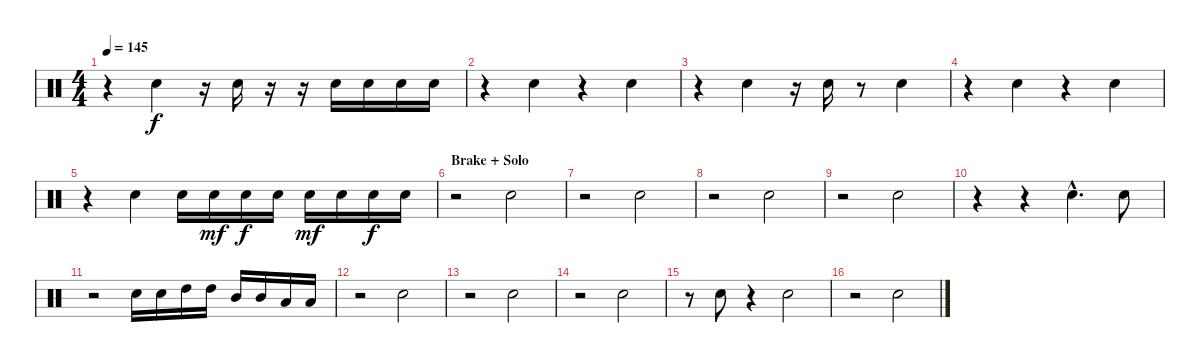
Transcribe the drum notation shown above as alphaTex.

\track "" {instrument percussion}
\staff {score}
\articulation defaults
\ts (4 4)
\tempo 145
\clef neutral
\ks c
r.4{dy f} "Electric Snare (hit)".4 r.16 "Electric Snare (hit)".16 r.16 r.16 "Electric Snare (hit)".16 "Electric Snare (hit)".16 "Electric Snare (hit)".16 "Electric Snare (hit)".16 |
r.4 "Electric Snare (hit)".4 r.4 "Electric Snare (hit)".4 |
r.4 "Electric Snare (hit)".4 r.16 "Electric Snare (hit)".16 r.8 "Electric Snare (hit)".4 |
r.4 "Electric Snare (hit)".4 r.4 "Electric Snare (hit)".4 |
r.4 "Electric Snare (hit)".4 "Electric Snare (hit)".16 "Electric Snare (hit)".16{dy mf} "Electric Snare (hit)".16{dy f} "Electric Snare (hit)".16 "Electric Snare (hit)".16{dy mf} "Electric Snare (hit)".16 "Electric Snare (hit)".16{dy f} "Electric Snare (hit)".16 |
\section ("" "Brake + Solo")
r.2 "Electric Snare (hit)".2 |
r.2 "Electric Snare (hit)".2 |
r.2 "Electric Snare (hit)".2 |
r.2 "Electric Snare (hit)".2 |
r.4 r.4 "Electric Snare (hit)"{hac}.4{d} "Electric Snare (hit)".8 |
r.2 "Electric Snare (hit)".16 "Electric Snare (hit)".16 "High Tom (hit)".16 "High Tom (hit)".16 "Mid Tom (hit)".16 "Mid Tom (hit)".16 "Low Tom (hit)".16 "Low Tom (hit)".16 |
r.2 "Electric Snare (hit)".2 |
r.2 "Electric Snare (hit)".2 |
r.2 "Electric Snare (hit)".2 |
r.8 "Electric Snare (hit)".8 r.4 "Electric Snare (hit)".2 |
r.2 "Electric Snare (hit)".2
